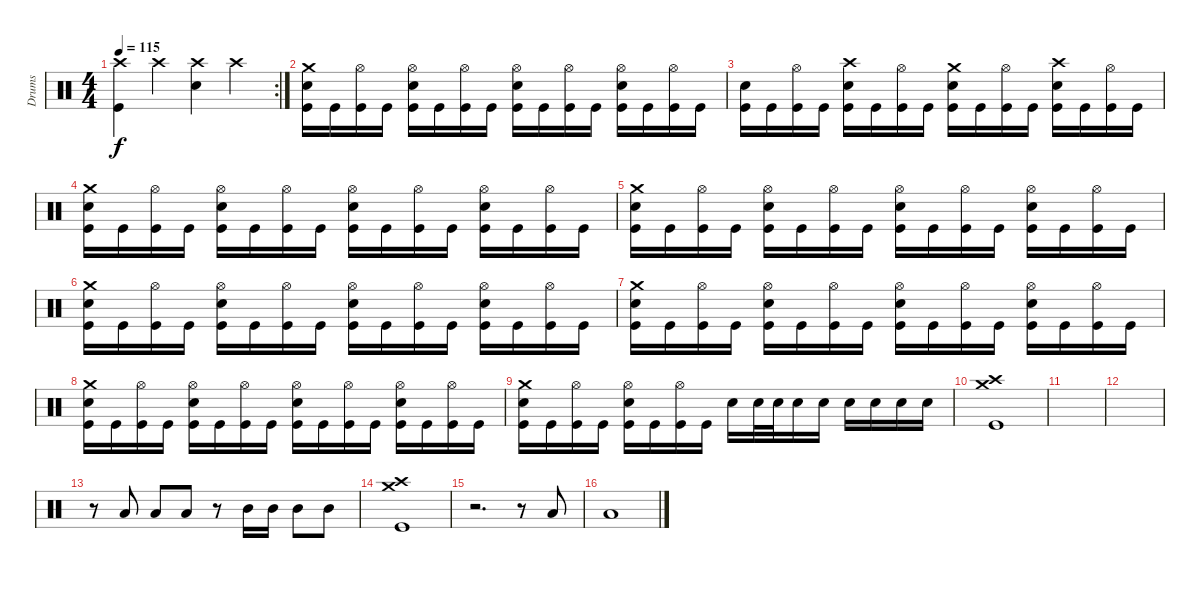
\track ("Drums" "Drums") {instrument percussion}
\staff
\articulation defaults
\rc 2
\ts (4 4)
\tempo 115
\clef neutral
\ks c
("Crash high (hit)" "Kick (hit)").4{dy f} "Crash high (hit)".4 ("Crash high (hit)" "Snare (hit) 2").4 "Crash high (hit)".4 |
("Crash medium (hit)" "Snare (hit) 2" "Kick (hit)").16 "Kick (hit)".16 ("Hi-Hat (open)" "Kick (hit)").16 "Kick (hit)".16 ("Hi-Hat (open)" "Snare (hit) 2" "Kick (hit)").16 "Kick (hit)".16 ("Hi-Hat (open)" "Kick (hit)").16 "Kick (hit)".16 ("Hi-Hat (open)" "Snare (hit) 2" "Kick (hit)").16 "Kick (hit)".16 ("Hi-Hat (open)" "Kick (hit)").16 "Kick (hit)".16 ("Hi-Hat (open)" "Snare (hit) 2" "Kick (hit)").16 "Kick (hit)".16 ("Hi-Hat (open)" "Kick (hit)").16 "Kick (hit)".16 |
("Snare (hit) 2" "Kick (hit)").16 "Kick (hit)".16 ("Hi-Hat (open)" "Kick (hit)").16 "Kick (hit)".16 ("Crash high (hit)" "Snare (hit) 2" "Kick (hit)").16 "Kick (hit)".16 ("Hi-Hat (open)" "Kick (hit)").16 "Kick (hit)".16 ("Crash medium (hit)" "Snare (hit) 2" "Kick (hit)").16 "Kick (hit)".16 ("Hi-Hat (open)" "Kick (hit)").16 "Kick (hit)".16 ("Crash high (hit)" "Snare (hit) 2" "Kick (hit)").16 "Kick (hit)".16 ("Hi-Hat (open)" "Kick (hit)").16 "Kick (hit)".16 |
("Crash medium (hit)" "Snare (hit) 2" "Kick (hit)").16 "Kick (hit)".16 ("Hi-Hat (open)" "Kick (hit)").16 "Kick (hit)".16 ("Hi-Hat (open)" "Snare (hit) 2" "Kick (hit)").16 "Kick (hit)".16 ("Hi-Hat (open)" "Kick (hit)").16 "Kick (hit)".16 ("Hi-Hat (open)" "Snare (hit) 2" "Kick (hit)").16 "Kick (hit)".16 ("Hi-Hat (open)" "Kick (hit)").16 "Kick (hit)".16 ("Hi-Hat (open)" "Snare (hit) 2" "Kick (hit)").16 "Kick (hit)".16 ("Hi-Hat (open)" "Kick (hit)").16 "Kick (hit)".16 |
("Crash medium (hit)" "Snare (hit) 2" "Kick (hit)").16 "Kick (hit)".16 ("Hi-Hat (open)" "Kick (hit)").16 "Kick (hit)".16 ("Hi-Hat (open)" "Snare (hit) 2" "Kick (hit)").16 "Kick (hit)".16 ("Hi-Hat (open)" "Kick (hit)").16 "Kick (hit)".16 ("Hi-Hat (open)" "Snare (hit) 2" "Kick (hit)").16 "Kick (hit)".16 ("Hi-Hat (open)" "Kick (hit)").16 "Kick (hit)".16 ("Hi-Hat (open)" "Snare (hit) 2" "Kick (hit)").16 "Kick (hit)".16 ("Hi-Hat (open)" "Kick (hit)").16 "Kick (hit)".16 |
("Crash medium (hit)" "Snare (hit) 2" "Kick (hit)").16 "Kick (hit)".16 ("Hi-Hat (open)" "Kick (hit)").16 "Kick (hit)".16 ("Hi-Hat (open)" "Snare (hit) 2" "Kick (hit)").16 "Kick (hit)".16 ("Hi-Hat (open)" "Kick (hit)").16 "Kick (hit)".16 ("Hi-Hat (open)" "Snare (hit) 2" "Kick (hit)").16 "Kick (hit)".16 ("Hi-Hat (open)" "Kick (hit)").16 "Kick (hit)".16 ("Hi-Hat (open)" "Snare (hit) 2" "Kick (hit)").16 "Kick (hit)".16 ("Hi-Hat (open)" "Kick (hit)").16 "Kick (hit)".16 |
("Crash medium (hit)" "Snare (hit) 2" "Kick (hit)").16 "Kick (hit)".16 ("Hi-Hat (open)" "Kick (hit)").16 "Kick (hit)".16 ("Hi-Hat (open)" "Snare (hit) 2" "Kick (hit)").16 "Kick (hit)".16 ("Hi-Hat (open)" "Kick (hit)").16 "Kick (hit)".16 ("Hi-Hat (open)" "Snare (hit) 2" "Kick (hit)").16 "Kick (hit)".16 ("Hi-Hat (open)" "Kick (hit)").16 "Kick (hit)".16 ("Hi-Hat (open)" "Snare (hit) 2" "Kick (hit)").16 "Kick (hit)".16 ("Hi-Hat (open)" "Kick (hit)").16 "Kick (hit)".16 |
("Crash medium (hit)" "Snare (hit) 2" "Kick (hit)").16 "Kick (hit)".16 ("Hi-Hat (open)" "Kick (hit)").16 "Kick (hit)".16 ("Hi-Hat (open)" "Snare (hit) 2" "Kick (hit)").16 "Kick (hit)".16 ("Hi-Hat (open)" "Kick (hit)").16 "Kick (hit)".16 ("Hi-Hat (open)" "Snare (hit) 2" "Kick (hit)").16 "Kick (hit)".16 ("Hi-Hat (open)" "Kick (hit)").16 "Kick (hit)".16 ("Hi-Hat (open)" "Snare (hit) 2" "Kick (hit)").16 "Kick (hit)".16 ("Hi-Hat (open)" "Kick (hit)").16 "Kick (hit)".16 |
("Crash medium (hit)" "Snare (hit) 2" "Kick (hit)").16 "Kick (hit)".16 ("Hi-Hat (open)" "Kick (hit)").16 "Kick (hit)".16 ("Hi-Hat (open)" "Snare (hit) 2" "Kick (hit)").16 "Kick (hit)".16 ("Hi-Hat (open)" "Kick (hit)").16 "Kick (hit)".16 "Snare (hit) 2".16 "Snare (hit) 2".32 "Snare (hit) 2".32 "Snare (hit) 2".16 "Snare (hit) 2".16 "Snare (hit) 2".16 "Snare (hit) 2".16 "Snare (hit) 2".16 "Snare (hit) 2".16 |
("Crash high (hit)" "Crash medium (hit)" "Kick (hit)").1 |
|
|
r.8 "Low Tom (hit)".8 "Low Tom (hit)".8 "Low Tom (hit)".8 r.8 "Mid Tom (hit)".16 "Mid Tom (hit)".16 "Mid Tom (hit)".8 "Mid Tom (hit)".8 |
("Crash medium (hit)" "Crash high (hit)" "Kick (hit)").1 |
r.2{d} r.8 "Low Tom (hit)".8 |
"Low Tom (hit)".1
